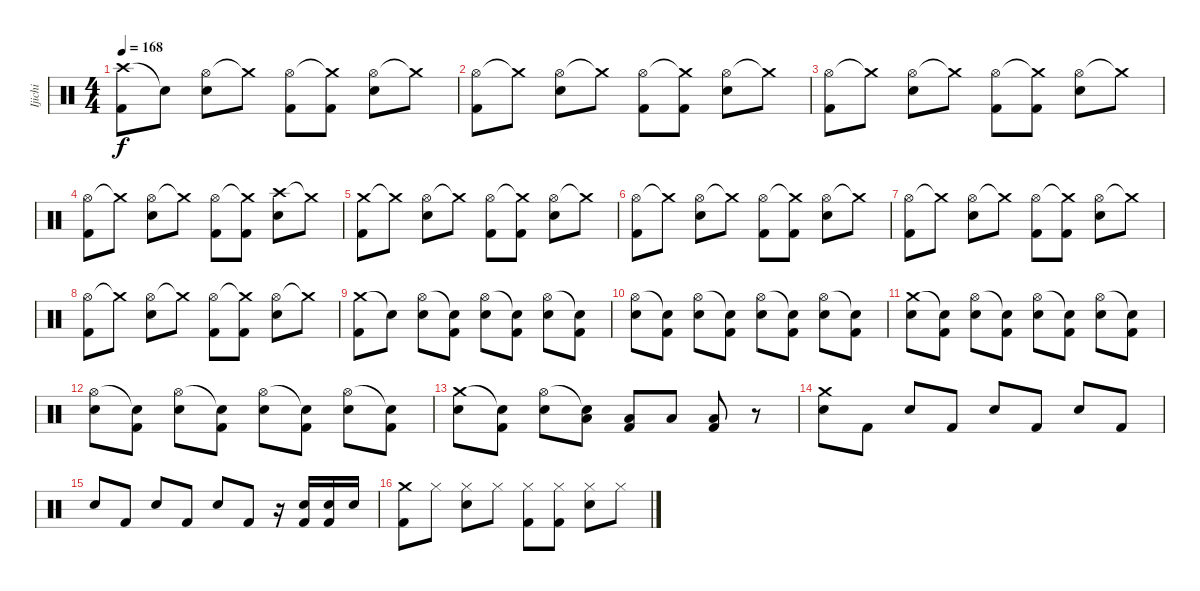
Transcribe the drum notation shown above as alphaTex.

\track ("Ijichi" "Ijichi") {instrument percussion}
\staff {score}
\articulation defaults
\ts (4 4)
\tempo 168
\clef neutral
\ks c
("Crash high (hit)" "Kick (hit) 2").8{dy f} "Snare (hit)"{t}.8 ("Hi-Hat (open)" "Electric Snare (hit)").8 "Crash medium (hit)"{t}.8 ("Hi-Hat (open)" "Kick (hit) 2").8 ("Crash medium (hit)"{t} "Kick (hit) 2").8 ("Hi-Hat (open)" "Electric Snare (hit)").8 "Crash medium (hit)"{t}.8 |
("Hi-Hat (open)" "Kick (hit) 2").8 "Crash medium (hit)"{t}.8 ("Hi-Hat (open)" "Electric Snare (hit)").8 "Crash medium (hit)"{t}.8 ("Hi-Hat (open)" "Kick (hit) 2").8 ("Crash medium (hit)"{t} "Kick (hit) 2").8 ("Hi-Hat (open)" "Electric Snare (hit)").8 "Crash medium (hit)"{t}.8 |
("Hi-Hat (open)" "Kick (hit) 2").8 "Crash medium (hit)"{t}.8 ("Hi-Hat (open)" "Electric Snare (hit)").8 "Crash medium (hit)"{t}.8 ("Hi-Hat (open)" "Kick (hit) 2").8 ("Crash medium (hit)"{t} "Kick (hit) 2").8 ("Hi-Hat (open)" "Electric Snare (hit)").8 "Crash medium (hit)"{t}.8 |
("Hi-Hat (open)" "Kick (hit) 2").8 "Crash medium (hit)"{t}.8 ("Hi-Hat (open)" "Electric Snare (hit)").8 "Crash medium (hit)"{t}.8 ("Hi-Hat (open)" "Kick (hit) 2").8 ("Crash medium (hit)"{t} "Kick (hit) 2").8 ("Crash high (hit)" "Electric Snare (hit)").8 "Crash medium (hit)"{t}.8 |
("Crash medium (hit)" "Kick (hit) 2").8 "Crash medium (hit)"{t}.8 ("Hi-Hat (open)" "Electric Snare (hit)").8 "Crash medium (hit)"{t}.8 ("Hi-Hat (open)" "Kick (hit) 2").8 ("Crash medium (hit)"{t} "Kick (hit) 2").8 ("Hi-Hat (open)" "Electric Snare (hit)").8 "Crash medium (hit)"{t}.8 |
("Hi-Hat (open)" "Kick (hit) 2").8 "Crash medium (hit)"{t}.8 ("Hi-Hat (open)" "Electric Snare (hit)").8 "Crash medium (hit)"{t}.8 ("Hi-Hat (open)" "Kick (hit) 2").8 ("Crash medium (hit)"{t} "Kick (hit) 2").8 ("Hi-Hat (open)" "Electric Snare (hit)").8 "Crash medium (hit)"{t}.8 |
("Hi-Hat (open)" "Kick (hit) 2").8 "Crash medium (hit)"{t}.8 ("Hi-Hat (open)" "Electric Snare (hit)").8 "Crash medium (hit)"{t}.8 ("Hi-Hat (open)" "Kick (hit) 2").8 ("Crash medium (hit)"{t} "Kick (hit) 2").8 ("Hi-Hat (open)" "Electric Snare (hit)").8 "Crash medium (hit)"{t}.8 |
("Hi-Hat (open)" "Kick (hit) 2").8 "Crash medium (hit)"{t}.8 ("Hi-Hat (open)" "Electric Snare (hit)").8 "Crash medium (hit)"{t}.8 ("Hi-Hat (open)" "Kick (hit) 2").8 ("Crash medium (hit)"{t} "Kick (hit) 2").8 ("Hi-Hat (open)" "Electric Snare (hit)").8 "Crash medium (hit)"{t}.8 |
("Crash medium (hit)" "Kick (hit) 2").8 "Snare (hit)"{t}.8 ("Hi-Hat (open)" "Electric Snare (hit)").8 ("Snare (hit)"{t} "Kick (hit) 2").8 ("Hi-Hat (open)" "Electric Snare (hit)").8 ("Snare (hit)"{t} "Kick (hit) 2").8 ("Hi-Hat (open)" "Electric Snare (hit)").8 ("Snare (hit)"{t} "Kick (hit) 2").8 |
("Hi-Hat (open)" "Electric Snare (hit)").8 ("Snare (hit)"{t} "Kick (hit) 2").8 ("Hi-Hat (open)" "Electric Snare (hit)").8 ("Snare (hit)"{t} "Kick (hit) 2").8 ("Hi-Hat (open)" "Electric Snare (hit)").8 ("Snare (hit)"{t} "Kick (hit) 2").8 ("Hi-Hat (open)" "Electric Snare (hit)").8 ("Snare (hit)"{t} "Kick (hit) 2").8 |
("Crash medium (hit)" "Electric Snare (hit)").8 ("Snare (hit)"{t} "Kick (hit) 2").8 ("Hi-Hat (open)" "Electric Snare (hit)").8 ("Snare (hit)"{t} "Kick (hit) 2").8 ("Hi-Hat (open)" "Electric Snare (hit)").8 ("Snare (hit)"{t} "Kick (hit) 2").8 ("Hi-Hat (open)" "Electric Snare (hit)").8 ("Snare (hit)"{t} "Kick (hit) 2").8 |
("Hi-Hat (open)" "Electric Snare (hit)").8 ("Snare (hit)"{t} "Kick (hit) 2").8 ("Hi-Hat (open)" "Electric Snare (hit)").8 ("Snare (hit)"{t} "Kick (hit) 2").8 ("Hi-Hat (open)" "Electric Snare (hit)").8 ("Snare (hit)"{t} "Kick (hit) 2").8 ("Hi-Hat (open)" "Electric Snare (hit)").8 ("Snare (hit)"{t} "Kick (hit) 2").8 |
("Crash medium (hit)" "Electric Snare (hit)").8 ("Snare (hit)"{t} "Kick (hit) 2").8 ("Hi-Hat (open)" "Electric Snare (hit)").8 ("Snare (hit)"{t} "Low Floor Tom (hit)").8 ("Low Floor Tom (hit)" "Kick (hit) 2").8 "Low Floor Tom (hit)".8 ("Low Floor Tom (hit)" "Kick (hit) 2").8 r.8 |
("Crash medium (hit)" "Electric Snare (hit)").8 "Kick (hit) 2".8 "Electric Snare (hit)".8 "Kick (hit) 2".8 "Electric Snare (hit)".8 "Kick (hit) 2".8 "Electric Snare (hit)".8 "Kick (hit) 2".8 |
"Electric Snare (hit)".8 "Kick (hit) 2".8 "Electric Snare (hit)".8 "Kick (hit) 2".8 "Electric Snare (hit)".8 "Kick (hit) 2".8 r.16 ("Electric Snare (hit)" "Kick (hit) 2").16 ("Electric Snare (hit)" "Kick (hit) 2").16 "Electric Snare (hit)".16 |
("Crash medium (hit)" "Kick (hit) 2").8 "Hi-Hat (closed)".8 ("Hi-Hat (closed)" "Electric Snare (hit)").8 "Hi-Hat (closed)".8 ("Hi-Hat (closed)" "Kick (hit) 2").8 ("Hi-Hat (closed)" "Kick (hit) 2").8 ("Hi-Hat (closed)" "Electric Snare (hit)").8 "Hi-Hat (closed)".8
